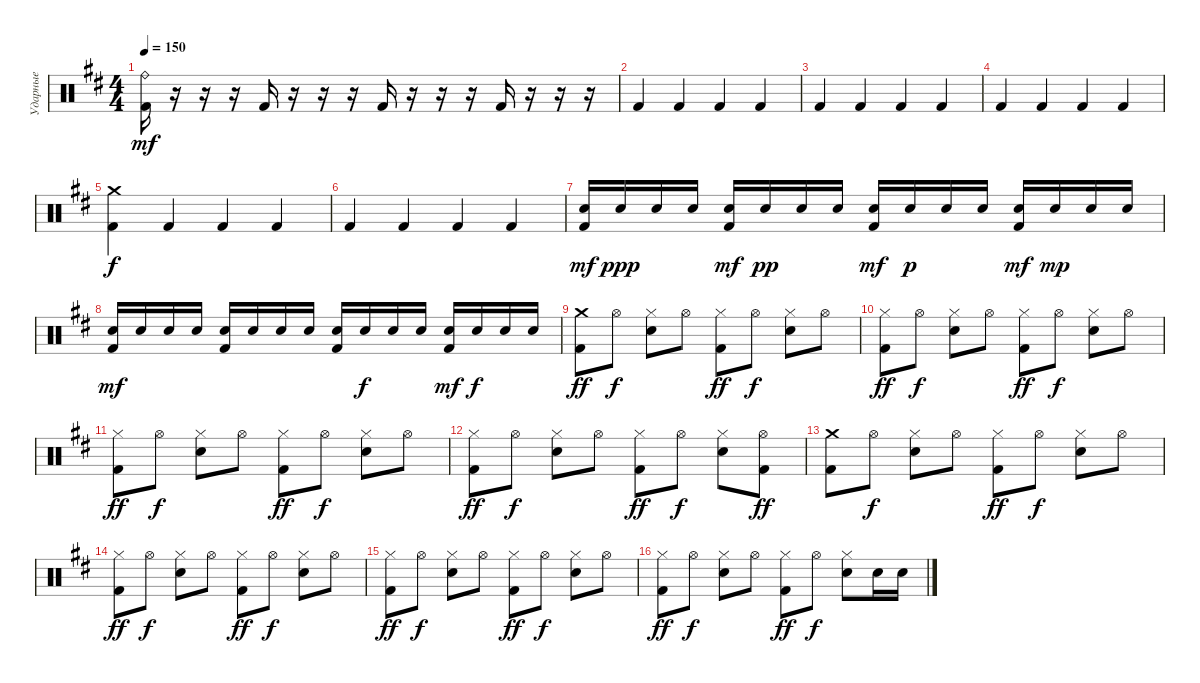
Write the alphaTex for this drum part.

\track ("Ударные" "Ударные") {instrument percussion}
\staff {score}
\articulation defaults
\ts (4 4)
\tempo 150
\clef neutral
\ks bminor
("Kick (hit) 2" "Ride (bell)").16{dy mf} r.16 r.16 r.16 "Kick (hit) 2".16 r.16 r.16 r.16 "Kick (hit) 2".16 r.16 r.16 r.16 "Kick (hit) 2".16 r.16 r.16 r.16 |
"Kick (hit) 2".4 "Kick (hit) 2".4 "Kick (hit) 2".4 "Kick (hit) 2".4 |
"Kick (hit) 2".4 "Kick (hit) 2".4 "Kick (hit) 2".4 "Kick (hit) 2".4 |
"Kick (hit) 2".4 "Kick (hit) 2".4 "Kick (hit) 2".4 "Kick (hit) 2".4 |
("Crash medium (hit)" "Kick (hit) 2").4{dy f} "Kick (hit) 2".4 "Kick (hit) 2".4 "Kick (hit) 2".4 |
"Kick (hit) 2".4 "Kick (hit) 2".4 "Kick (hit) 2".4 "Kick (hit) 2".4 |
("Electric Snare (hit)" "Kick (hit) 2").16{dy mf} "Electric Snare (hit)".16{dy ppp} "Electric Snare (hit)".16 "Electric Snare (hit)".16 ("Electric Snare (hit)" "Kick (hit) 2").16{dy mf} "Electric Snare (hit)".16{dy pp} "Electric Snare (hit)".16 "Electric Snare (hit)".16 ("Electric Snare (hit)" "Kick (hit) 2").16{dy mf} "Electric Snare (hit)".16{dy p} "Electric Snare (hit)".16 "Electric Snare (hit)".16 ("Electric Snare (hit)" "Kick (hit) 2").16{dy mf} "Electric Snare (hit)".16{dy mp} "Electric Snare (hit)".16 "Electric Snare (hit)".16 |
("Electric Snare (hit)" "Kick (hit) 2").16{dy mf} "Electric Snare (hit)".16 "Electric Snare (hit)".16 "Electric Snare (hit)".16 ("Electric Snare (hit)" "Kick (hit) 2").16 "Electric Snare (hit)".16 "Electric Snare (hit)".16 "Electric Snare (hit)".16 ("Electric Snare (hit)" "Kick (hit) 2").16 "Electric Snare (hit)".16{dy f} "Electric Snare (hit)".16 "Electric Snare (hit)".16 ("Electric Snare (hit)" "Kick (hit) 2").16{dy mf} "Electric Snare (hit)".16{dy f} "Electric Snare (hit)".16 "Electric Snare (hit)".16 |
("Crash medium (hit)" "Kick (hit) 2").8{dy ff} "Hi-Hat (open)".8{dy f} ("Electric Snare (hit)" "Hi-Hat (closed)").8 "Hi-Hat (open)".8 ("Kick (hit) 2" "Hi-Hat (closed)").8{dy ff} "Hi-Hat (open)".8{dy f} ("Electric Snare (hit)" "Hi-Hat (closed)").8 "Hi-Hat (open)".8 |
("Kick (hit) 2" "Hi-Hat (closed)").8{dy ff} "Hi-Hat (open)".8{dy f} ("Electric Snare (hit)" "Hi-Hat (closed)").8 "Hi-Hat (open)".8 ("Kick (hit) 2" "Hi-Hat (closed)").8{dy ff} "Hi-Hat (open)".8{dy f} ("Electric Snare (hit)" "Hi-Hat (closed)").8 "Hi-Hat (open)".8 |
("Kick (hit) 2" "Hi-Hat (closed)").8{dy ff} "Hi-Hat (open)".8{dy f} ("Electric Snare (hit)" "Hi-Hat (closed)").8 "Hi-Hat (open)".8 ("Kick (hit) 2" "Hi-Hat (closed)").8{dy ff} "Hi-Hat (open)".8{dy f} ("Electric Snare (hit)" "Hi-Hat (closed)").8 "Hi-Hat (open)".8 |
("Kick (hit) 2" "Hi-Hat (closed)").8{dy ff} "Hi-Hat (open)".8{dy f} ("Electric Snare (hit)" "Hi-Hat (closed)").8 "Hi-Hat (open)".8 ("Kick (hit) 2" "Hi-Hat (closed)").8{dy ff} "Hi-Hat (open)".8{dy f} ("Electric Snare (hit)" "Hi-Hat (closed)").8 ("Kick (hit) 2" "Hi-Hat (open)").8{dy ff} |
("Crash medium (hit)" "Kick (hit) 2").8 "Hi-Hat (open)".8{dy f} ("Electric Snare (hit)" "Hi-Hat (closed)").8 "Hi-Hat (open)".8 ("Kick (hit) 2" "Hi-Hat (closed)").8{dy ff} "Hi-Hat (open)".8{dy f} ("Electric Snare (hit)" "Hi-Hat (closed)").8 "Hi-Hat (open)".8 |
("Kick (hit) 2" "Hi-Hat (closed)").8{dy ff} "Hi-Hat (open)".8{dy f} ("Electric Snare (hit)" "Hi-Hat (closed)").8 "Hi-Hat (open)".8 ("Kick (hit) 2" "Hi-Hat (closed)").8{dy ff} "Hi-Hat (open)".8{dy f} ("Electric Snare (hit)" "Hi-Hat (closed)").8 "Hi-Hat (open)".8 |
("Kick (hit) 2" "Hi-Hat (closed)").8{dy ff} "Hi-Hat (open)".8{dy f} ("Electric Snare (hit)" "Hi-Hat (closed)").8 "Hi-Hat (open)".8 ("Kick (hit) 2" "Hi-Hat (closed)").8{dy ff} "Hi-Hat (open)".8{dy f} ("Electric Snare (hit)" "Hi-Hat (closed)").8 "Hi-Hat (open)".8 |
("Kick (hit) 2" "Hi-Hat (closed)").8{dy ff} "Hi-Hat (open)".8{dy f} ("Electric Snare (hit)" "Hi-Hat (closed)").8 "Hi-Hat (open)".8 ("Kick (hit) 2" "Hi-Hat (closed)").8{dy ff} "Hi-Hat (open)".8{dy f} ("Electric Snare (hit)" "Hi-Hat (closed)").8 "Electric Snare (hit)".16 "Electric Snare (hit)".16
